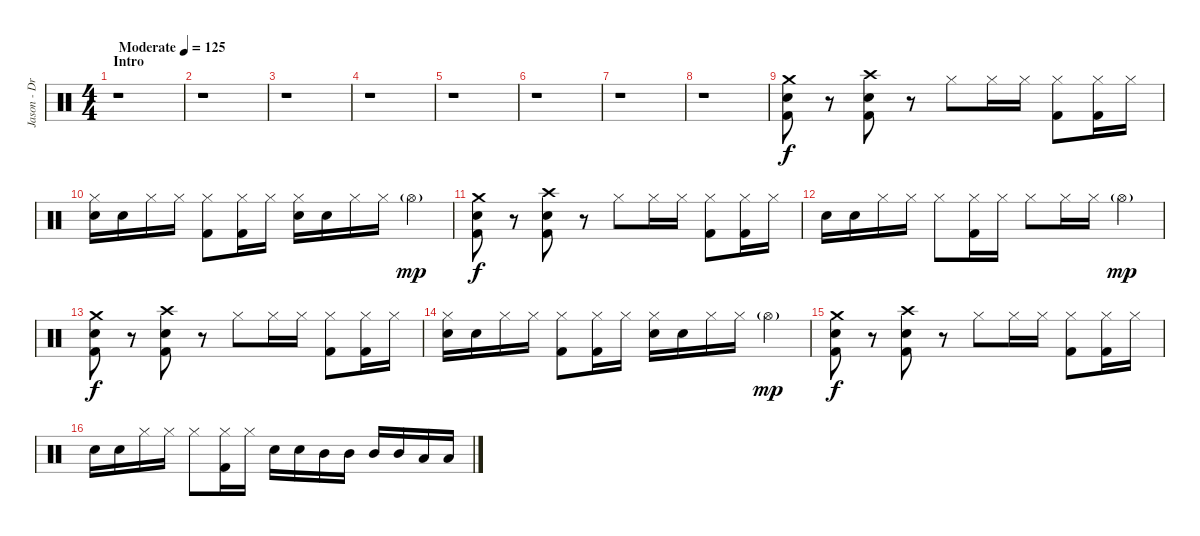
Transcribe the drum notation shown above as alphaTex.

\track ("Jason - Drums" "Jason - Dr") {instrument percussion}
\staff {score}
\articulation defaults
\ts (4 4)
\section ("" "Intro")
\tempo (125 "Moderate")
\clef neutral
\ks c
r.1{dy f} |
r.1 |
r.1 |
r.1 |
r.1 |
r.1 |
r.1 |
r.1 |
("Crash medium (hit)" "Electric Snare (hit)" "Kick (hit) 2").8 r.8 ("Crash high (hit)" "Electric Snare (hit)" "Kick (hit) 2").8 r.8 "Hi-Hat (closed)".8 "Hi-Hat (closed)".16 "Hi-Hat (closed)".16 ("Hi-Hat (closed)" "Kick (hit) 2").8 ("Hi-Hat (closed)" "Kick (hit) 2").16 "Hi-Hat (closed)".16 |
("Hi-Hat (closed)" "Electric Snare (hit)").16 "Electric Snare (hit)".16 "Hi-Hat (closed)".16 "Hi-Hat (closed)".16 ("Hi-Hat (closed)" "Kick (hit) 2").8 ("Hi-Hat (closed)" "Kick (hit) 2").16 "Hi-Hat (closed)".16 ("Hi-Hat (closed)" "Electric Snare (hit)").16 "Electric Snare (hit)".16 "Hi-Hat (closed)".16 "Hi-Hat (closed)".16 "Hi-Hat (open)"{g}.4{dy mp} |
("Crash medium (hit)" "Electric Snare (hit)" "Kick (hit) 2").8{dy f} r.8 ("Crash high (hit)" "Electric Snare (hit)" "Kick (hit) 2").8 r.8 "Hi-Hat (closed)".8 "Hi-Hat (closed)".16 "Hi-Hat (closed)".16 ("Hi-Hat (closed)" "Kick (hit) 2").8 ("Hi-Hat (closed)" "Kick (hit) 2").16 "Hi-Hat (closed)".16 |
"Electric Snare (hit)".16 "Electric Snare (hit)".16 "Hi-Hat (closed)".16 "Hi-Hat (closed)".16 "Hi-Hat (closed)".8 ("Hi-Hat (closed)" "Kick (hit) 2").16 "Hi-Hat (closed)".16 "Hi-Hat (closed)".8 "Hi-Hat (closed)".16 "Hi-Hat (closed)".16 "Hi-Hat (open)"{g}.4{dy mp} |
("Crash medium (hit)" "Electric Snare (hit)" "Kick (hit) 2").8{dy f} r.8 ("Crash high (hit)" "Electric Snare (hit)" "Kick (hit) 2").8 r.8 "Hi-Hat (closed)".8 "Hi-Hat (closed)".16 "Hi-Hat (closed)".16 ("Hi-Hat (closed)" "Kick (hit) 2").8 ("Hi-Hat (closed)" "Kick (hit) 2").16 "Hi-Hat (closed)".16 |
("Hi-Hat (closed)" "Electric Snare (hit)").16 "Electric Snare (hit)".16 "Hi-Hat (closed)".16 "Hi-Hat (closed)".16 ("Hi-Hat (closed)" "Kick (hit) 2").8 ("Hi-Hat (closed)" "Kick (hit) 2").16 "Hi-Hat (closed)".16 ("Hi-Hat (closed)" "Electric Snare (hit)").16 "Electric Snare (hit)".16 "Hi-Hat (closed)".16 "Hi-Hat (closed)".16 "Hi-Hat (open)"{g}.4{dy mp} |
("Crash medium (hit)" "Electric Snare (hit)" "Kick (hit) 2").8{dy f} r.8 ("Crash high (hit)" "Electric Snare (hit)" "Kick (hit) 2").8 r.8 "Hi-Hat (closed)".8 "Hi-Hat (closed)".16 "Hi-Hat (closed)".16 ("Hi-Hat (closed)" "Kick (hit) 2").8 ("Hi-Hat (closed)" "Kick (hit) 2").16 "Hi-Hat (closed)".16 |
"Electric Snare (hit)".16 "Electric Snare (hit)".16 "Hi-Hat (closed)".16 "Hi-Hat (closed)".16 "Hi-Hat (closed)".8 ("Hi-Hat (closed)" "Kick (hit) 2").16 "Hi-Hat (closed)".16 "Electric Snare (hit)".16 "Electric Snare (hit)".16 "Mid Tom (hit)".16 "Mid Tom (hit)".16 "Mid Tom (hit)".16 "Mid Tom (hit)".16 "Low Tom (hit)".16 "Low Tom (hit)".16
